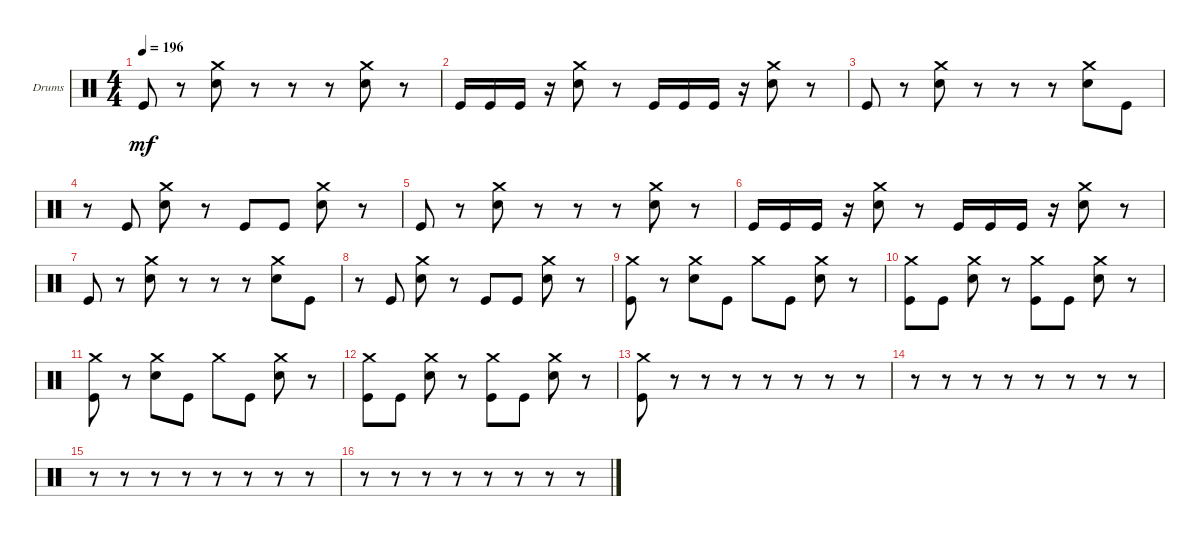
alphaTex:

\defaultSystemsLayout 4
\bracketExtendMode groupsimilarinstruments
\firstSystemTrackNameOrientation horizontal
\otherSystemsTrackNameOrientation horizontal
\track ("Drumkit" "Drums") {instrument percussion}
\staff {score}
\articulation defaults
\ts (4 4)
\tempo 196
\clef neutral
\ks c "Kick (hit)".8{dy mf}
r.8 ("Snare (hit) 2" "Crash medium (hit)").8 r.8 r.8 r.8 ("Snare (hit) 2" "Crash medium (hit)").8 r.8 |
"Kick (hit)".16 "Kick (hit)".16 "Kick (hit)".16 r.16 ("Snare (hit) 2" "Crash medium (hit)").8 r.8 "Kick (hit)".16 "Kick (hit)".16 "Kick (hit)".16 r.16 ("Snare (hit) 2" "Crash medium (hit)").8 r.8 |
"Kick (hit)".8 r.8 ("Snare (hit) 2" "Crash medium (hit)").8 r.8 r.8 r.8 ("Snare (hit) 2" "Crash medium (hit)").8 "Kick (hit)".8 |
r.8 "Kick (hit)".8 ("Snare (hit) 2" "Crash medium (hit)").8 r.8 "Kick (hit)".8 "Kick (hit)".8 ("Snare (hit) 2" "Crash medium (hit)").8 r.8 |
"Kick (hit)".8 r.8 ("Snare (hit) 2" "Crash medium (hit)").8 r.8 r.8 r.8 ("Snare (hit) 2" "Crash medium (hit)").8 r.8 |
"Kick (hit)".16 "Kick (hit)".16 "Kick (hit)".16 r.16 ("Snare (hit) 2" "Crash medium (hit)").8 r.8 "Kick (hit)".16 "Kick (hit)".16 "Kick (hit)".16 r.16 ("Snare (hit) 2" "Crash medium (hit)").8 r.8 |
"Kick (hit)".8 r.8 ("Snare (hit) 2" "Crash medium (hit)").8 r.8 r.8 r.8 ("Snare (hit) 2" "Crash medium (hit)").8 "Kick (hit)".8 |
r.8 "Kick (hit)".8 ("Snare (hit) 2" "Crash medium (hit)").8 r.8 "Kick (hit)".8 "Kick (hit)".8 ("Snare (hit) 2" "Crash medium (hit)").8 r.8 |
("Kick (hit)" "Crash medium (hit)").8 r.8 ("Snare (hit) 2" "Crash medium (hit)").8 "Kick (hit)".8 "Crash medium (hit)".8 "Kick (hit)".8 ("Snare (hit) 2" "Crash medium (hit)").8 r.8 |
("Kick (hit)" "Crash medium (hit)").8 "Kick (hit)".8 ("Snare (hit) 2" "Crash medium (hit)").8 r.8 ("Kick (hit)" "Crash medium (hit)").8 "Kick (hit)".8 ("Snare (hit) 2" "Crash medium (hit)").8 r.8 |
("Kick (hit)" "Crash medium (hit)").8 r.8 ("Snare (hit) 2" "Crash medium (hit)").8 "Kick (hit)".8 "Crash medium (hit)".8 "Kick (hit)".8 ("Snare (hit) 2" "Crash medium (hit)").8 r.8 |
("Kick (hit)" "Crash medium (hit)").8 "Kick (hit)".8 ("Snare (hit) 2" "Crash medium (hit)").8 r.8 ("Kick (hit)" "Crash medium (hit)").8 "Kick (hit)".8 ("Snare (hit) 2" "Crash medium (hit)").8 r.8 |
("Kick (hit)" "Crash medium (hit)").8 r.8 r.8 r.8 r.8 r.8 r.8 r.8 |
r.8 r.8 r.8 r.8 r.8 r.8 r.8 r.8 |
r.8 r.8 r.8 r.8 r.8 r.8 r.8 r.8 |
r.8 r.8 r.8 r.8 r.8 r.8 r.8 r.8
